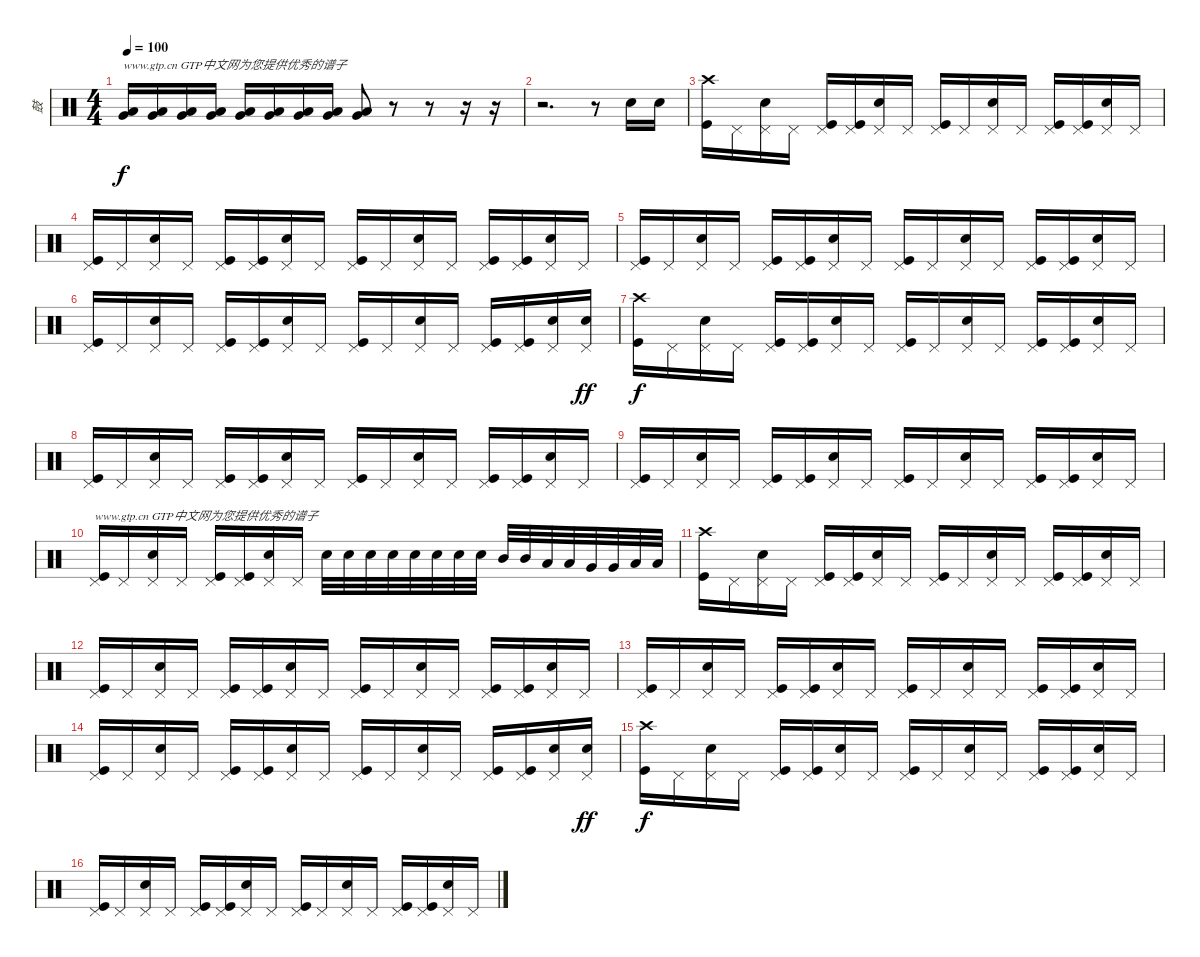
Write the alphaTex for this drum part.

\track ("鼓" "鼓") {instrument percussion}
\staff {score}
\articulation defaults
\ts (4 4)
\tempo 100
\clef neutral
\ks c
("Very Low Tom (hit)" "Low Tom (hit)").16{txt "www.gtp.cn GTP中文网为您提供优秀的谱子" dy f} ("Very Low Tom (hit)" "Low Tom (hit)").16 ("Very Low Tom (hit)" "Low Tom (hit)").16 ("Very Low Tom (hit)" "Low Tom (hit)").16 ("Very Low Tom (hit)" "Low Tom (hit)").16 ("Very Low Tom (hit)" "Low Tom (hit)").16 ("Very Low Tom (hit)" "Low Tom (hit)").16 ("Very Low Tom (hit)" "Low Tom (hit)").16 ("Very Low Tom (hit)" "Low Tom (hit)").8 r.8 r.8 r.16 r.16 |
r.2{d} r.8 "Snare (hit) 2".16 "Snare (hit) 2".16 |
("Kick (hit)" "Crash high (hit)").16 "Pedal Hi-Hat (hit)".16 ("Snare (hit) 2" "Pedal Hi-Hat (hit)").16 "Pedal Hi-Hat (hit)".16 ("Kick (hit)" "Pedal Hi-Hat (hit)").16 ("Kick (hit)" "Pedal Hi-Hat (hit)").16 ("Snare (hit) 2" "Pedal Hi-Hat (hit)").16 "Pedal Hi-Hat (hit)".16 ("Kick (hit)" "Pedal Hi-Hat (hit)").16 "Pedal Hi-Hat (hit)".16 ("Snare (hit) 2" "Pedal Hi-Hat (hit)").16 "Pedal Hi-Hat (hit)".16 ("Kick (hit)" "Pedal Hi-Hat (hit)").16 ("Kick (hit)" "Pedal Hi-Hat (hit)").16 ("Snare (hit) 2" "Pedal Hi-Hat (hit)").16 "Pedal Hi-Hat (hit)".16 |
("Kick (hit)" "Pedal Hi-Hat (hit)").16 "Pedal Hi-Hat (hit)".16 ("Snare (hit) 2" "Pedal Hi-Hat (hit)").16 "Pedal Hi-Hat (hit)".16 ("Kick (hit)" "Pedal Hi-Hat (hit)").16 ("Kick (hit)" "Pedal Hi-Hat (hit)").16 ("Snare (hit) 2" "Pedal Hi-Hat (hit)").16 "Pedal Hi-Hat (hit)".16 ("Kick (hit)" "Pedal Hi-Hat (hit)").16 "Pedal Hi-Hat (hit)".16 ("Snare (hit) 2" "Pedal Hi-Hat (hit)").16 "Pedal Hi-Hat (hit)".16 ("Kick (hit)" "Pedal Hi-Hat (hit)").16 ("Kick (hit)" "Pedal Hi-Hat (hit)").16 ("Snare (hit) 2" "Pedal Hi-Hat (hit)").16 "Pedal Hi-Hat (hit)".16 |
("Kick (hit)" "Pedal Hi-Hat (hit)").16 "Pedal Hi-Hat (hit)".16 ("Snare (hit) 2" "Pedal Hi-Hat (hit)").16 "Pedal Hi-Hat (hit)".16 ("Kick (hit)" "Pedal Hi-Hat (hit)").16 ("Kick (hit)" "Pedal Hi-Hat (hit)").16 ("Snare (hit) 2" "Pedal Hi-Hat (hit)").16 "Pedal Hi-Hat (hit)".16 ("Kick (hit)" "Pedal Hi-Hat (hit)").16 "Pedal Hi-Hat (hit)".16 ("Snare (hit) 2" "Pedal Hi-Hat (hit)").16 "Pedal Hi-Hat (hit)".16 ("Kick (hit)" "Pedal Hi-Hat (hit)").16 ("Kick (hit)" "Pedal Hi-Hat (hit)").16 ("Snare (hit) 2" "Pedal Hi-Hat (hit)").16 "Pedal Hi-Hat (hit)".16 |
("Kick (hit)" "Pedal Hi-Hat (hit)").16 "Pedal Hi-Hat (hit)".16 ("Snare (hit) 2" "Pedal Hi-Hat (hit)").16 "Pedal Hi-Hat (hit)".16 ("Kick (hit)" "Pedal Hi-Hat (hit)").16 ("Kick (hit)" "Pedal Hi-Hat (hit)").16 ("Snare (hit) 2" "Pedal Hi-Hat (hit)").16 "Pedal Hi-Hat (hit)".16 ("Kick (hit)" "Pedal Hi-Hat (hit)").16 "Pedal Hi-Hat (hit)".16 ("Snare (hit) 2" "Pedal Hi-Hat (hit)").16 "Pedal Hi-Hat (hit)".16 ("Kick (hit)" "Pedal Hi-Hat (hit)").16 ("Kick (hit)" "Pedal Hi-Hat (hit)").16 ("Snare (hit) 2" "Pedal Hi-Hat (hit)").16 ("Pedal Hi-Hat (hit)" "Snare (hit) 2").16{dy ff} |
("Kick (hit)" "Crash high (hit)").16{dy f} "Pedal Hi-Hat (hit)".16 ("Snare (hit) 2" "Pedal Hi-Hat (hit)").16 "Pedal Hi-Hat (hit)".16 ("Kick (hit)" "Pedal Hi-Hat (hit)").16 ("Kick (hit)" "Pedal Hi-Hat (hit)").16 ("Snare (hit) 2" "Pedal Hi-Hat (hit)").16 "Pedal Hi-Hat (hit)".16 ("Kick (hit)" "Pedal Hi-Hat (hit)").16 "Pedal Hi-Hat (hit)".16 ("Snare (hit) 2" "Pedal Hi-Hat (hit)").16 "Pedal Hi-Hat (hit)".16 ("Kick (hit)" "Pedal Hi-Hat (hit)").16 ("Kick (hit)" "Pedal Hi-Hat (hit)").16 ("Snare (hit) 2" "Pedal Hi-Hat (hit)").16 "Pedal Hi-Hat (hit)".16 |
("Kick (hit)" "Pedal Hi-Hat (hit)").16 "Pedal Hi-Hat (hit)".16 ("Snare (hit) 2" "Pedal Hi-Hat (hit)").16 "Pedal Hi-Hat (hit)".16 ("Kick (hit)" "Pedal Hi-Hat (hit)").16 ("Kick (hit)" "Pedal Hi-Hat (hit)").16 ("Snare (hit) 2" "Pedal Hi-Hat (hit)").16 "Pedal Hi-Hat (hit)".16 ("Kick (hit)" "Pedal Hi-Hat (hit)").16 "Pedal Hi-Hat (hit)".16 ("Snare (hit) 2" "Pedal Hi-Hat (hit)").16 "Pedal Hi-Hat (hit)".16 ("Kick (hit)" "Pedal Hi-Hat (hit)").16 ("Kick (hit)" "Pedal Hi-Hat (hit)").16 ("Snare (hit) 2" "Pedal Hi-Hat (hit)").16 "Pedal Hi-Hat (hit)".16 |
("Kick (hit)" "Pedal Hi-Hat (hit)").16 "Pedal Hi-Hat (hit)".16 ("Snare (hit) 2" "Pedal Hi-Hat (hit)").16 "Pedal Hi-Hat (hit)".16 ("Kick (hit)" "Pedal Hi-Hat (hit)").16 ("Kick (hit)" "Pedal Hi-Hat (hit)").16 ("Snare (hit) 2" "Pedal Hi-Hat (hit)").16 "Pedal Hi-Hat (hit)".16 ("Kick (hit)" "Pedal Hi-Hat (hit)").16 "Pedal Hi-Hat (hit)".16 ("Snare (hit) 2" "Pedal Hi-Hat (hit)").16 "Pedal Hi-Hat (hit)".16 ("Kick (hit)" "Pedal Hi-Hat (hit)").16 ("Kick (hit)" "Pedal Hi-Hat (hit)").16 ("Snare (hit) 2" "Pedal Hi-Hat (hit)").16 "Pedal Hi-Hat (hit)".16 |
("Kick (hit)" "Pedal Hi-Hat (hit)").16{txt "www.gtp.cn GTP中文网为您提供优秀的谱子"} "Pedal Hi-Hat (hit)".16 ("Snare (hit) 2" "Pedal Hi-Hat (hit)").16 "Pedal Hi-Hat (hit)".16 ("Kick (hit)" "Pedal Hi-Hat (hit)").16 ("Kick (hit)" "Pedal Hi-Hat (hit)").16 ("Snare (hit) 2" "Pedal Hi-Hat (hit)").16 "Pedal Hi-Hat (hit)".16 "Snare (hit) 2".32 "Snare (hit) 2".32 "Snare (hit) 2".32 "Snare (hit) 2".32 "Snare (hit) 2".32 "Snare (hit) 2".32 "Snare (hit) 2".32 "Snare (hit) 2".32 "Mid Tom (hit)".32 "Mid Tom (hit)".32 "Low Tom (hit)".32 "Low Tom (hit)".32 "Very Low Tom (hit)".32 "Very Low Tom (hit)".32 "Low Floor Tom (hit)".32 "Low Floor Tom (hit)".32 |
("Kick (hit)" "Crash high (hit)").16 "Pedal Hi-Hat (hit)".16 ("Snare (hit) 2" "Pedal Hi-Hat (hit)").16 "Pedal Hi-Hat (hit)".16 ("Kick (hit)" "Pedal Hi-Hat (hit)").16 ("Kick (hit)" "Pedal Hi-Hat (hit)").16 ("Snare (hit) 2" "Pedal Hi-Hat (hit)").16 "Pedal Hi-Hat (hit)".16 ("Kick (hit)" "Pedal Hi-Hat (hit)").16 "Pedal Hi-Hat (hit)".16 ("Snare (hit) 2" "Pedal Hi-Hat (hit)").16 "Pedal Hi-Hat (hit)".16 ("Kick (hit)" "Pedal Hi-Hat (hit)").16 ("Kick (hit)" "Pedal Hi-Hat (hit)").16 ("Snare (hit) 2" "Pedal Hi-Hat (hit)").16 "Pedal Hi-Hat (hit)".16 |
("Kick (hit)" "Pedal Hi-Hat (hit)").16 "Pedal Hi-Hat (hit)".16 ("Snare (hit) 2" "Pedal Hi-Hat (hit)").16 "Pedal Hi-Hat (hit)".16 ("Kick (hit)" "Pedal Hi-Hat (hit)").16 ("Kick (hit)" "Pedal Hi-Hat (hit)").16 ("Snare (hit) 2" "Pedal Hi-Hat (hit)").16 "Pedal Hi-Hat (hit)".16 ("Kick (hit)" "Pedal Hi-Hat (hit)").16 "Pedal Hi-Hat (hit)".16 ("Snare (hit) 2" "Pedal Hi-Hat (hit)").16 "Pedal Hi-Hat (hit)".16 ("Kick (hit)" "Pedal Hi-Hat (hit)").16 ("Kick (hit)" "Pedal Hi-Hat (hit)").16 ("Snare (hit) 2" "Pedal Hi-Hat (hit)").16 "Pedal Hi-Hat (hit)".16 |
("Kick (hit)" "Pedal Hi-Hat (hit)").16 "Pedal Hi-Hat (hit)".16 ("Snare (hit) 2" "Pedal Hi-Hat (hit)").16 "Pedal Hi-Hat (hit)".16 ("Kick (hit)" "Pedal Hi-Hat (hit)").16 ("Kick (hit)" "Pedal Hi-Hat (hit)").16 ("Snare (hit) 2" "Pedal Hi-Hat (hit)").16 "Pedal Hi-Hat (hit)".16 ("Kick (hit)" "Pedal Hi-Hat (hit)").16 "Pedal Hi-Hat (hit)".16 ("Snare (hit) 2" "Pedal Hi-Hat (hit)").16 "Pedal Hi-Hat (hit)".16 ("Kick (hit)" "Pedal Hi-Hat (hit)").16 ("Kick (hit)" "Pedal Hi-Hat (hit)").16 ("Snare (hit) 2" "Pedal Hi-Hat (hit)").16 "Pedal Hi-Hat (hit)".16 |
("Kick (hit)" "Pedal Hi-Hat (hit)").16 "Pedal Hi-Hat (hit)".16 ("Snare (hit) 2" "Pedal Hi-Hat (hit)").16 "Pedal Hi-Hat (hit)".16 ("Kick (hit)" "Pedal Hi-Hat (hit)").16 ("Kick (hit)" "Pedal Hi-Hat (hit)").16 ("Snare (hit) 2" "Pedal Hi-Hat (hit)").16 "Pedal Hi-Hat (hit)".16 ("Kick (hit)" "Pedal Hi-Hat (hit)").16 "Pedal Hi-Hat (hit)".16 ("Snare (hit) 2" "Pedal Hi-Hat (hit)").16 "Pedal Hi-Hat (hit)".16 ("Kick (hit)" "Pedal Hi-Hat (hit)").16 ("Kick (hit)" "Pedal Hi-Hat (hit)").16 ("Snare (hit) 2" "Pedal Hi-Hat (hit)").16 ("Pedal Hi-Hat (hit)" "Snare (hit) 2").16{dy ff} |
("Kick (hit)" "Crash high (hit)").16{dy f} "Pedal Hi-Hat (hit)".16 ("Snare (hit) 2" "Pedal Hi-Hat (hit)").16 "Pedal Hi-Hat (hit)".16 ("Kick (hit)" "Pedal Hi-Hat (hit)").16 ("Kick (hit)" "Pedal Hi-Hat (hit)").16 ("Snare (hit) 2" "Pedal Hi-Hat (hit)").16 "Pedal Hi-Hat (hit)".16 ("Kick (hit)" "Pedal Hi-Hat (hit)").16 "Pedal Hi-Hat (hit)".16 ("Snare (hit) 2" "Pedal Hi-Hat (hit)").16 "Pedal Hi-Hat (hit)".16 ("Kick (hit)" "Pedal Hi-Hat (hit)").16 ("Kick (hit)" "Pedal Hi-Hat (hit)").16 ("Snare (hit) 2" "Pedal Hi-Hat (hit)").16 "Pedal Hi-Hat (hit)".16 |
("Kick (hit)" "Pedal Hi-Hat (hit)").16 "Pedal Hi-Hat (hit)".16 ("Snare (hit) 2" "Pedal Hi-Hat (hit)").16 "Pedal Hi-Hat (hit)".16 ("Kick (hit)" "Pedal Hi-Hat (hit)").16 ("Kick (hit)" "Pedal Hi-Hat (hit)").16 ("Snare (hit) 2" "Pedal Hi-Hat (hit)").16 "Pedal Hi-Hat (hit)".16 ("Kick (hit)" "Pedal Hi-Hat (hit)").16 "Pedal Hi-Hat (hit)".16 ("Snare (hit) 2" "Pedal Hi-Hat (hit)").16 "Pedal Hi-Hat (hit)".16 ("Kick (hit)" "Pedal Hi-Hat (hit)").16 ("Kick (hit)" "Pedal Hi-Hat (hit)").16 ("Snare (hit) 2" "Pedal Hi-Hat (hit)").16 "Pedal Hi-Hat (hit)".16
